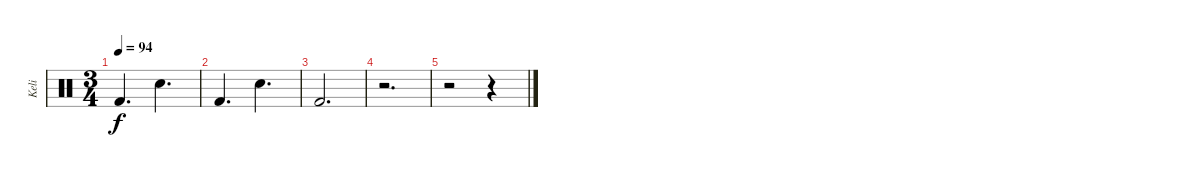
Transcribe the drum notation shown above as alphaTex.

\track ("Keli" "Keli") {instrument percussion}
\staff {score}
\articulation defaults
\ts (3 4)
\tempo 94
\clef neutral
\ks c "Kick (hit) 2".4{d dy f} "Snare (hit) 2".4{d}
|
"Kick (hit) 2".4{d} "Snare (hit) 2".4{d} |
"Kick (hit) 2".2{d} |
r.2{d} |
r.2 r.4
